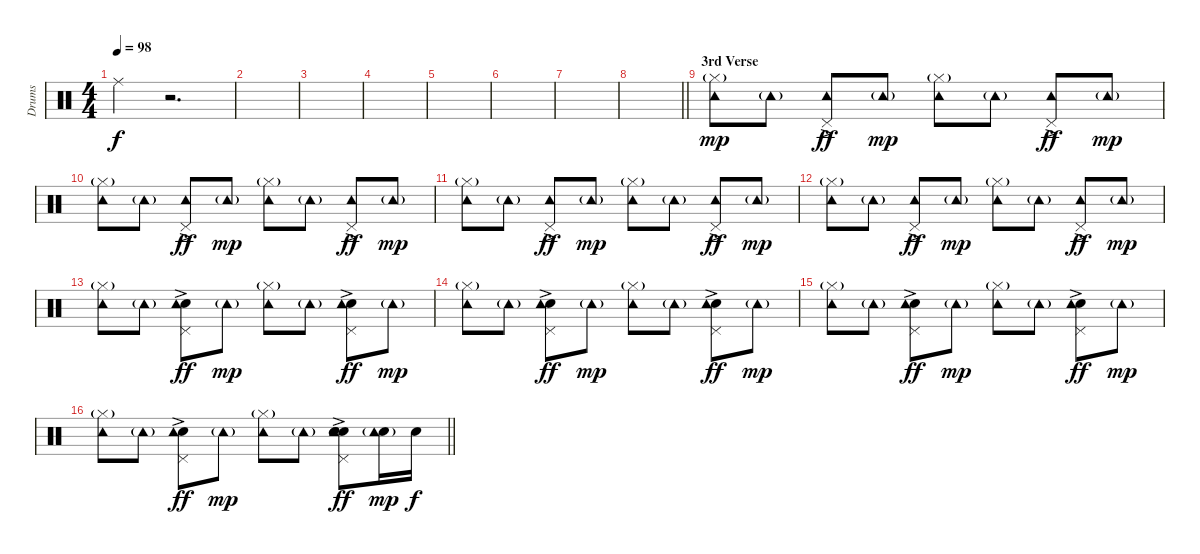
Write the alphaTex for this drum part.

\track ("Drums" "Drums") {instrument percussion}
\staff {score}
\articulation defaults
\ts (4 4)
\tempo 98
\clef neutral
\ks c "Ride (middle)".4{dy f}
r.2{d} |
|
|
|
|
|
|
\barLineRight lightlight
|
\section ("" "3rd Verse")
("Hi-Hat (closed)"{g} "Tambourine (hit)").8{dy mp} "Tambourine (hit)"{g}.8 ("Pedal Hi-Hat (hit)"{ac} "Tambourine (hit)").8{dy ff} "Tambourine (hit)"{g}.8{dy mp} ("Hi-Hat (closed)"{g} "Tambourine (hit)").8 "Tambourine (hit)"{g}.8 ("Pedal Hi-Hat (hit)"{ac} "Tambourine (hit)").8{dy ff} "Tambourine (hit)"{g}.8{dy mp} |
("Hi-Hat (closed)"{g} "Tambourine (hit)").8 "Tambourine (hit)"{g}.8 ("Pedal Hi-Hat (hit)"{ac} "Tambourine (hit)").8{dy ff} "Tambourine (hit)"{g}.8{dy mp} ("Hi-Hat (closed)"{g} "Tambourine (hit)").8 "Tambourine (hit)"{g}.8 ("Pedal Hi-Hat (hit)"{ac} "Tambourine (hit)").8{dy ff} "Tambourine (hit)"{g}.8{dy mp} |
("Hi-Hat (closed)"{g} "Tambourine (hit)").8 "Tambourine (hit)"{g}.8 ("Pedal Hi-Hat (hit)"{ac} "Tambourine (hit)").8{dy ff} "Tambourine (hit)"{g}.8{dy mp} ("Hi-Hat (closed)"{g} "Tambourine (hit)").8 "Tambourine (hit)"{g}.8 ("Pedal Hi-Hat (hit)"{ac} "Tambourine (hit)").8{dy ff} "Tambourine (hit)"{g}.8{dy mp} |
("Hi-Hat (closed)"{g} "Tambourine (hit)").8 "Tambourine (hit)"{g}.8 ("Pedal Hi-Hat (hit)"{ac} "Tambourine (hit)").8{dy ff} "Tambourine (hit)"{g}.8{dy mp} ("Hi-Hat (closed)"{g} "Tambourine (hit)").8 "Tambourine (hit)"{g}.8 ("Pedal Hi-Hat (hit)"{ac} "Tambourine (hit)").8{dy ff} "Tambourine (hit)"{g}.8{dy mp} |
("Hi-Hat (closed)"{g} "Tambourine (hit)").8 "Tambourine (hit)"{g}.8 ("Hand Clap (hit)" "Pedal Hi-Hat (hit)"{ac} "Tambourine (hit)").8{dy ff} "Tambourine (hit)"{g}.8{dy mp} ("Hi-Hat (closed)"{g} "Tambourine (hit)").8 "Tambourine (hit)"{g}.8 ("Hand Clap (hit)" "Pedal Hi-Hat (hit)"{ac} "Tambourine (hit)").8{dy ff} "Tambourine (hit)"{g}.8{dy mp} |
("Hi-Hat (closed)"{g} "Tambourine (hit)").8 "Tambourine (hit)"{g}.8 ("Hand Clap (hit)" "Pedal Hi-Hat (hit)"{ac} "Tambourine (hit)").8{dy ff} "Tambourine (hit)"{g}.8{dy mp} ("Hi-Hat (closed)"{g} "Tambourine (hit)").8 "Tambourine (hit)"{g}.8 ("Hand Clap (hit)" "Pedal Hi-Hat (hit)"{ac} "Tambourine (hit)").8{dy ff} "Tambourine (hit)"{g}.8{dy mp} |
("Hi-Hat (closed)"{g} "Tambourine (hit)").8 "Tambourine (hit)"{g}.8 ("Hand Clap (hit)" "Pedal Hi-Hat (hit)"{ac} "Tambourine (hit)").8{dy ff} "Tambourine (hit)"{g}.8{dy mp} ("Hi-Hat (closed)"{g} "Tambourine (hit)").8 "Tambourine (hit)"{g}.8 ("Hand Clap (hit)" "Pedal Hi-Hat (hit)"{ac} "Tambourine (hit)").8{dy ff} "Tambourine (hit)"{g}.8{dy mp} |
\barLineRight lightlight
("Hi-Hat (closed)"{g} "Tambourine (hit)").8 "Tambourine (hit)"{g}.8 ("Hand Clap (hit)" "Pedal Hi-Hat (hit)"{ac} "Tambourine (hit)").8{dy ff} "Tambourine (hit)"{g}.8{dy mp} ("Hi-Hat (closed)"{g} "Tambourine (hit)").8 "Tambourine (hit)"{g}.8 ("Electric Snare (hit)"{ac} "Snare (hit) 2" "Hand Clap (hit)" "Pedal Hi-Hat (hit)"{ac} "Tambourine (hit)").8{dy ff} ("Snare (hit) 2" "Tambourine (hit)"{g}).16{dy mp} "Snare (hit) 2".16{dy f}
